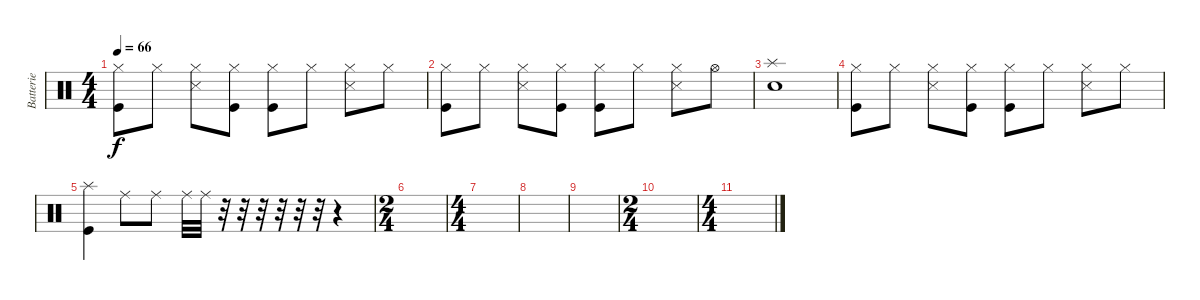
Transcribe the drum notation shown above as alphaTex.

\track ("Batterie" "Batterie") {instrument percussion}
\staff {score}
\articulation defaults
\ts (4 4)
\tempo 66
\clef neutral
\ks c
("Hi-Hat (closed)" "Kick (hit)").8{dy f} "Hi-Hat (closed)".8 ("Hi-Hat (closed)" "Snare (side stick) 3").8 ("Hi-Hat (closed)" "Kick (hit)").8 ("Hi-Hat (closed)" "Kick (hit)").8 "Hi-Hat (closed)".8 ("Hi-Hat (closed)" "Snare (side stick) 3").8 "Hi-Hat (closed)".8 |
("Hi-Hat (closed)" "Kick (hit)").8 "Hi-Hat (closed)".8 ("Hi-Hat (closed)" "Snare (side stick) 3").8 ("Hi-Hat (closed)" "Kick (hit)").8 ("Hi-Hat (closed)" "Kick (hit)").8 "Hi-Hat (closed)".8 ("Hi-Hat (closed)" "Snare (side stick) 3").8 "Hi-Hat (open)".8 |
("Splash (hit)" "Snare (hit) 2").1 |
("Hi-Hat (closed)" "Kick (hit)").8 "Hi-Hat (closed)".8 ("Hi-Hat (closed)" "Snare (side stick) 3").8 ("Hi-Hat (closed)" "Kick (hit)").8 ("Hi-Hat (closed)" "Kick (hit)").8 "Hi-Hat (closed)".8 ("Hi-Hat (closed)" "Snare (side stick) 3").8 "Hi-Hat (closed)".8 |
("Splash (hit)" "Kick (hit)").4 "Ride (middle)".8 "Ride (middle)".8 "Ride (middle)".32 "Ride (middle)".32 r.32 r.32 r.32 r.32 r.32 r.32 r.4 |
\ts (2 4)
|
\ts (4 4)
|
|
|
\ts (2 4)
|
\ts (4 4)
